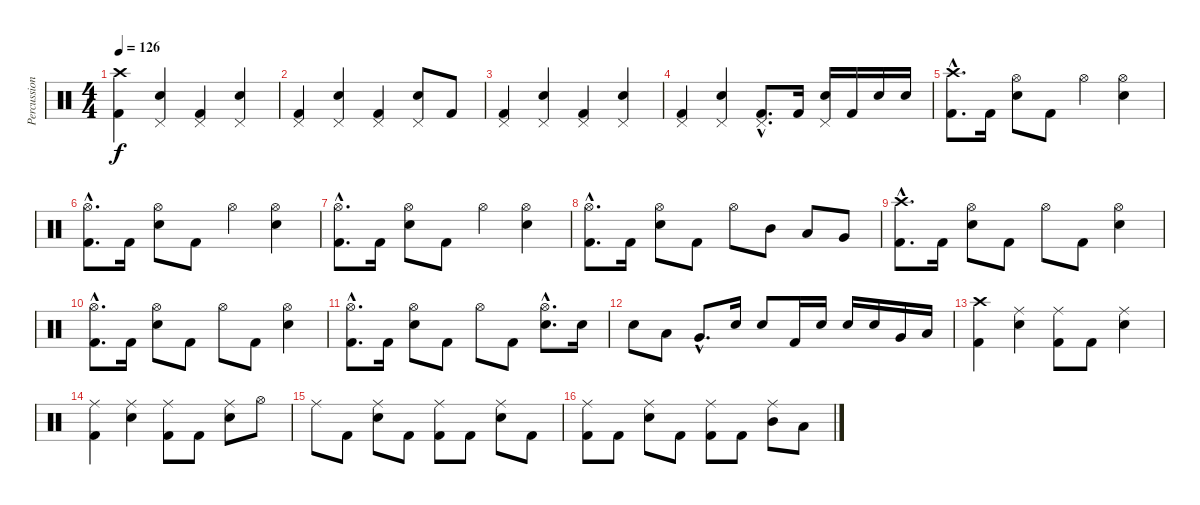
\track ("Percussion" "Percussion") {instrument percussion}
\staff {score}
\articulation defaults
\ts (4 4)
\tempo 126
\clef neutral
\ks c
("Crash high (hit)" "Kick (hit) 2").4{dy f} ("Pedal Hi-Hat (hit)" "Snare (hit) 2").4 ("Pedal Hi-Hat (hit)" "Kick (hit) 2").4 ("Pedal Hi-Hat (hit)" "Snare (hit) 2").4 |
("Pedal Hi-Hat (hit)" "Kick (hit) 2").4 ("Pedal Hi-Hat (hit)" "Snare (hit) 2").4 ("Pedal Hi-Hat (hit)" "Kick (hit) 2").4 ("Pedal Hi-Hat (hit)" "Snare (hit) 2").8 "Kick (hit) 2".8 |
("Pedal Hi-Hat (hit)" "Kick (hit) 2").4 ("Pedal Hi-Hat (hit)" "Snare (hit) 2").4 ("Pedal Hi-Hat (hit)" "Kick (hit) 2").4 ("Pedal Hi-Hat (hit)" "Snare (hit) 2").4 |
("Pedal Hi-Hat (hit)" "Kick (hit) 2").4 ("Pedal Hi-Hat (hit)" "Snare (hit) 2").4 ("Pedal Hi-Hat (hit)"{hac} "Kick (hit) 2"{hac}).8{d} "Kick (hit) 2".16 ("Pedal Hi-Hat (hit)" "Snare (hit) 2").16 "Kick (hit) 2".16 "Snare (hit) 2".16 "Snare (hit) 2".16 |
("Crash high (hit)"{hac} "Kick (hit) 2"{hac}).8{d} "Kick (hit) 2".16 ("Hi-Hat (open)" "Snare (hit) 2").8 "Kick (hit) 2".8 "Hi-Hat (open)".4 ("Hi-Hat (open)" "Snare (hit) 2").4 |
("Hi-Hat (open)"{hac} "Kick (hit) 2"{hac}).8{d} "Kick (hit) 2".16 ("Hi-Hat (open)" "Snare (hit) 2").8 "Kick (hit) 2".8 "Hi-Hat (open)".4 ("Hi-Hat (open)" "Snare (hit) 2").4 |
("Hi-Hat (open)"{hac} "Kick (hit) 2"{hac}).8{d} "Kick (hit) 2".16 ("Hi-Hat (open)" "Snare (hit) 2").8 "Kick (hit) 2".8 "Hi-Hat (open)".4 ("Hi-Hat (open)" "Snare (hit) 2").4 |
("Hi-Hat (open)"{hac} "Kick (hit) 2"{hac}).8{d} "Kick (hit) 2".16 ("Hi-Hat (open)" "Snare (hit) 2").8 "Kick (hit) 2".8 "Hi-Hat (open)".8 "Mid Tom (hit)".8 "Low Tom (hit)".8 "Very Low Tom (hit)".8 |
("Crash high (hit)"{hac} "Kick (hit) 2"{hac}).8{d} "Kick (hit) 2".16 ("Hi-Hat (open)" "Snare (hit) 2").8 "Kick (hit) 2".8 "Hi-Hat (open)".8 "Kick (hit) 2".8 ("Hi-Hat (open)" "Snare (hit) 2").4 |
("Hi-Hat (open)"{hac} "Kick (hit) 2"{hac}).8{d} "Kick (hit) 2".16 ("Hi-Hat (open)" "Snare (hit) 2").8 "Kick (hit) 2".8 "Hi-Hat (open)".8 "Kick (hit) 2".8 ("Hi-Hat (open)" "Snare (hit) 2").4 |
("Hi-Hat (open)"{hac} "Kick (hit) 2"{hac}).8{d} "Kick (hit) 2".16 ("Hi-Hat (open)" "Snare (hit) 2").8 "Kick (hit) 2".8 "Hi-Hat (open)".8 "Kick (hit) 2".8 ("Hi-Hat (open)"{hac} "Snare (hit) 2"{hac}).8{d} "Snare (hit) 2".16 |
"Snare (hit) 2".8 "Low Tom (hit)".8 "Very Low Tom (hit)"{hac}.8{d} "Snare (hit) 2".16 "Snare (hit) 2".8 "Kick (hit) 2".16 "Snare (hit) 2".16 "Snare (hit) 2".16 "Snare (hit) 2".16 "Very Low Tom (hit)".16 "Low Floor Tom (hit)".16 |
("Crash high (hit)" "Kick (hit) 2").4 ("Ride (middle)" "Snare (hit) 2").4 ("Ride (middle)" "Kick (hit) 2").8 "Kick (hit) 2".8 ("Ride (middle)" "Snare (hit) 2").4 |
("Ride (middle)" "Kick (hit) 2").4 ("Ride (middle)" "Snare (hit) 2").4 ("Ride (middle)" "Kick (hit) 2").8 "Kick (hit) 2".8 ("Ride (middle)" "Snare (hit) 2").8 "Hi-Hat (open)".8 |
"Ride (middle)".8 "Kick (hit) 2".8 ("Ride (middle)" "Snare (hit) 2").8 "Kick (hit) 2".8 ("Ride (middle)" "Kick (hit) 2").8 "Kick (hit) 2".8 ("Ride (middle)" "Snare (hit) 2").8 "Kick (hit) 2".8 |
("Ride (middle)" "Kick (hit) 2").8 "Kick (hit) 2".8 ("Ride (middle)" "Snare (hit) 2").8 "Kick (hit) 2".8 ("Ride (middle)" "Kick (hit) 2").8 "Kick (hit) 2".8 ("Ride (middle)" "Mid Tom (hit)").8 "Low Tom (hit)".8
